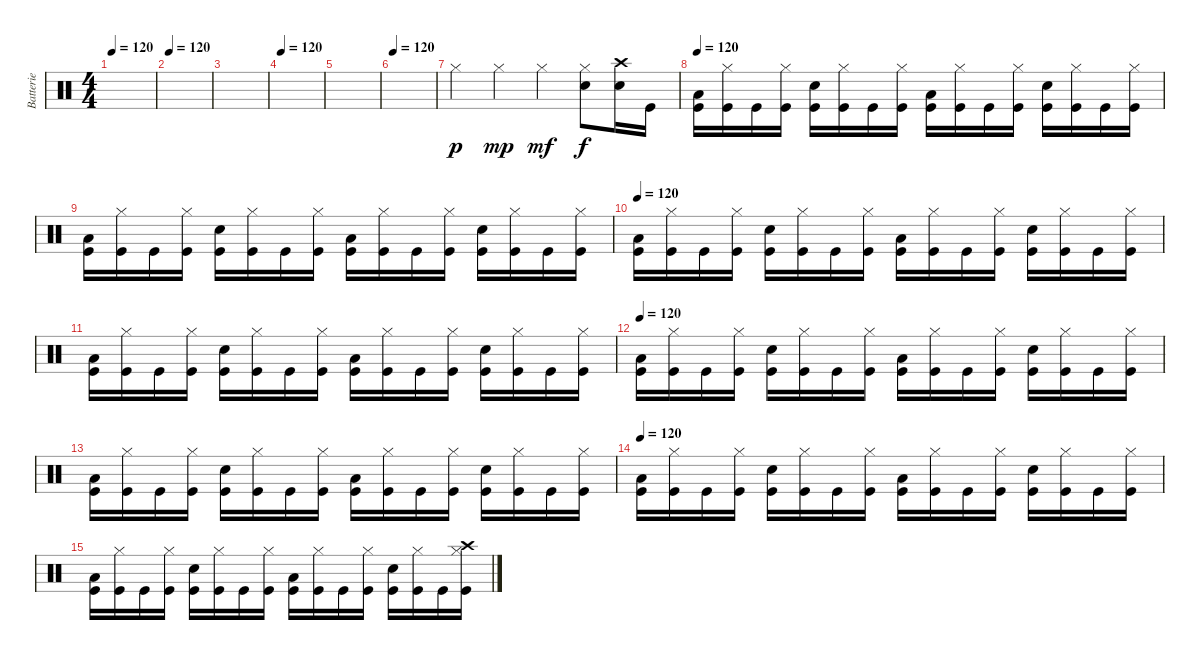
\track ("Batterie" "Batterie") {instrument percussion}
\staff {score}
\articulation defaults
\ts (4 4)
\tempo 120
\clef neutral
\ks c
|
\tempo 120
|
|
\tempo 120
|
|
\tempo 120
|
"Hi-Hat (closed)".4{dy p} "Hi-Hat (closed)".4{dy mp} "Hi-Hat (closed)".4{dy mf} ("Hi-Hat (closed)" "Snare (hit) 2").8{dy f} ("Snare (hit) 2" "Crash high (hit)").16 "Kick (hit)".16 |
\tempo 120
("Kick (hit)" "Low Floor Tom (hit)").16 ("Kick (hit)" "Hi-Hat (closed)").16 "Kick (hit)".16 ("Kick (hit)" "Hi-Hat (closed)").16 ("Kick (hit)" "Snare (hit) 2").16 ("Kick (hit)" "Hi-Hat (closed)").16 "Kick (hit)".16 ("Kick (hit)" "Hi-Hat (closed)").16 ("Kick (hit)" "Low Floor Tom (hit)").16 ("Kick (hit)" "Hi-Hat (closed)").16 "Kick (hit)".16 ("Kick (hit)" "Hi-Hat (closed)").16 ("Kick (hit)" "Snare (hit) 2").16 ("Kick (hit)" "Hi-Hat (closed)").16 "Kick (hit)".16 ("Kick (hit)" "Hi-Hat (closed)").16 |
("Kick (hit)" "Low Floor Tom (hit)").16 ("Kick (hit)" "Hi-Hat (closed)").16 "Kick (hit)".16 ("Kick (hit)" "Hi-Hat (closed)").16 ("Kick (hit)" "Snare (hit) 2").16 ("Kick (hit)" "Hi-Hat (closed)").16 "Kick (hit)".16 ("Kick (hit)" "Hi-Hat (closed)").16 ("Kick (hit)" "Low Floor Tom (hit)").16 ("Kick (hit)" "Hi-Hat (closed)").16 "Kick (hit)".16 ("Kick (hit)" "Hi-Hat (closed)").16 ("Kick (hit)" "Snare (hit) 2").16 ("Kick (hit)" "Hi-Hat (closed)").16 "Kick (hit)".16 ("Kick (hit)" "Hi-Hat (closed)").16 |
\tempo 120
("Kick (hit)" "Low Floor Tom (hit)").16 ("Kick (hit)" "Hi-Hat (closed)").16 "Kick (hit)".16 ("Kick (hit)" "Hi-Hat (closed)").16 ("Kick (hit)" "Snare (hit) 2").16 ("Kick (hit)" "Hi-Hat (closed)").16 "Kick (hit)".16 ("Kick (hit)" "Hi-Hat (closed)").16 ("Kick (hit)" "Low Floor Tom (hit)").16 ("Kick (hit)" "Hi-Hat (closed)").16 "Kick (hit)".16 ("Kick (hit)" "Hi-Hat (closed)").16 ("Kick (hit)" "Snare (hit) 2").16 ("Kick (hit)" "Hi-Hat (closed)").16 "Kick (hit)".16 ("Kick (hit)" "Hi-Hat (closed)").16 |
("Kick (hit)" "Low Floor Tom (hit)").16 ("Kick (hit)" "Hi-Hat (closed)").16 "Kick (hit)".16 ("Kick (hit)" "Hi-Hat (closed)").16 ("Kick (hit)" "Snare (hit) 2").16 ("Kick (hit)" "Hi-Hat (closed)").16 "Kick (hit)".16 ("Kick (hit)" "Hi-Hat (closed)").16 ("Kick (hit)" "Low Floor Tom (hit)").16 ("Kick (hit)" "Hi-Hat (closed)").16 "Kick (hit)".16 ("Kick (hit)" "Hi-Hat (closed)").16 ("Kick (hit)" "Snare (hit) 2").16 ("Kick (hit)" "Hi-Hat (closed)").16 "Kick (hit)".16 ("Kick (hit)" "Hi-Hat (closed)").16 |
\tempo 120
("Kick (hit)" "Low Floor Tom (hit)").16 ("Kick (hit)" "Hi-Hat (closed)").16 "Kick (hit)".16 ("Kick (hit)" "Hi-Hat (closed)").16 ("Kick (hit)" "Snare (hit) 2").16 ("Kick (hit)" "Hi-Hat (closed)").16 "Kick (hit)".16 ("Kick (hit)" "Hi-Hat (closed)").16 ("Kick (hit)" "Low Floor Tom (hit)").16 ("Kick (hit)" "Hi-Hat (closed)").16 "Kick (hit)".16 ("Kick (hit)" "Hi-Hat (closed)").16 ("Kick (hit)" "Snare (hit) 2").16 ("Kick (hit)" "Hi-Hat (closed)").16 "Kick (hit)".16 ("Kick (hit)" "Hi-Hat (closed)").16 |
("Kick (hit)" "Low Floor Tom (hit)").16 ("Kick (hit)" "Hi-Hat (closed)").16 "Kick (hit)".16 ("Kick (hit)" "Hi-Hat (closed)").16 ("Kick (hit)" "Snare (hit) 2").16 ("Kick (hit)" "Hi-Hat (closed)").16 "Kick (hit)".16 ("Kick (hit)" "Hi-Hat (closed)").16 ("Kick (hit)" "Low Floor Tom (hit)").16 ("Kick (hit)" "Hi-Hat (closed)").16 "Kick (hit)".16 ("Kick (hit)" "Hi-Hat (closed)").16 ("Kick (hit)" "Snare (hit) 2").16 ("Kick (hit)" "Hi-Hat (closed)").16 "Kick (hit)".16 ("Kick (hit)" "Hi-Hat (closed)").16 |
\tempo 120
("Kick (hit)" "Low Floor Tom (hit)").16 ("Kick (hit)" "Hi-Hat (closed)").16 "Kick (hit)".16 ("Kick (hit)" "Hi-Hat (closed)").16 ("Kick (hit)" "Snare (hit) 2").16 ("Kick (hit)" "Hi-Hat (closed)").16 "Kick (hit)".16 ("Kick (hit)" "Hi-Hat (closed)").16 ("Kick (hit)" "Low Floor Tom (hit)").16 ("Kick (hit)" "Hi-Hat (closed)").16 "Kick (hit)".16 ("Kick (hit)" "Hi-Hat (closed)").16 ("Kick (hit)" "Snare (hit) 2").16 ("Kick (hit)" "Hi-Hat (closed)").16 "Kick (hit)".16 ("Kick (hit)" "Hi-Hat (closed)").16 |
("Kick (hit)" "Low Floor Tom (hit)").16 ("Kick (hit)" "Hi-Hat (closed)").16 "Kick (hit)".16 ("Kick (hit)" "Hi-Hat (closed)").16 ("Kick (hit)" "Snare (hit) 2").16 ("Kick (hit)" "Hi-Hat (closed)").16 "Kick (hit)".16 ("Kick (hit)" "Hi-Hat (closed)").16 ("Kick (hit)" "Low Floor Tom (hit)").16 ("Kick (hit)" "Hi-Hat (closed)").16 "Kick (hit)".16 ("Kick (hit)" "Hi-Hat (closed)").16 ("Kick (hit)" "Snare (hit) 2").16 ("Kick (hit)" "Hi-Hat (closed)").16 "Kick (hit)".16 ("Kick (hit)" "Hi-Hat (closed)" "Crash high (hit)").16
